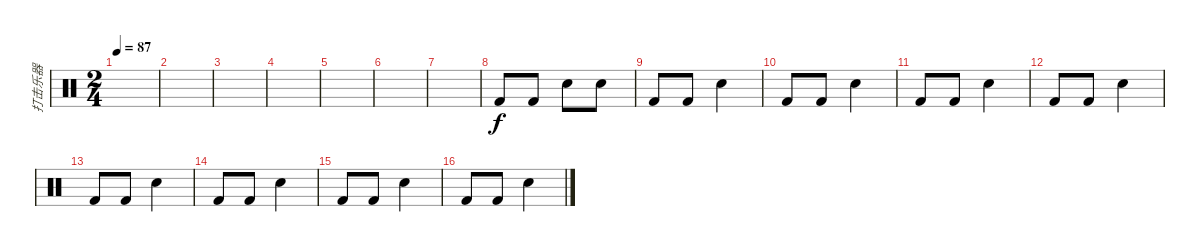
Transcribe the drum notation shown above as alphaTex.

\track ("打击乐器" "打击乐器") {instrument percussion}
\staff {score}
\articulation defaults
\ts (2 4)
\tempo 87
\clef neutral
\ks c
|
|
|
|
|
|
|
"Kick (hit) 2".8 "Kick (hit) 2".8 "Snare (hit) 2".8 "Snare (hit) 2".8 |
"Kick (hit) 2".8 "Kick (hit) 2".8 "Snare (hit) 2".4 |
"Kick (hit) 2".8 "Kick (hit) 2".8 "Snare (hit) 2".4 |
"Kick (hit) 2".8 "Kick (hit) 2".8 "Snare (hit) 2".4 |
"Kick (hit) 2".8 "Kick (hit) 2".8 "Snare (hit) 2".4 |
"Kick (hit) 2".8 "Kick (hit) 2".8 "Snare (hit) 2".4 |
"Kick (hit) 2".8 "Kick (hit) 2".8 "Snare (hit) 2".4 |
"Kick (hit) 2".8 "Kick (hit) 2".8 "Snare (hit) 2".4 |
"Kick (hit) 2".8 "Kick (hit) 2".8 "Snare (hit) 2".4
